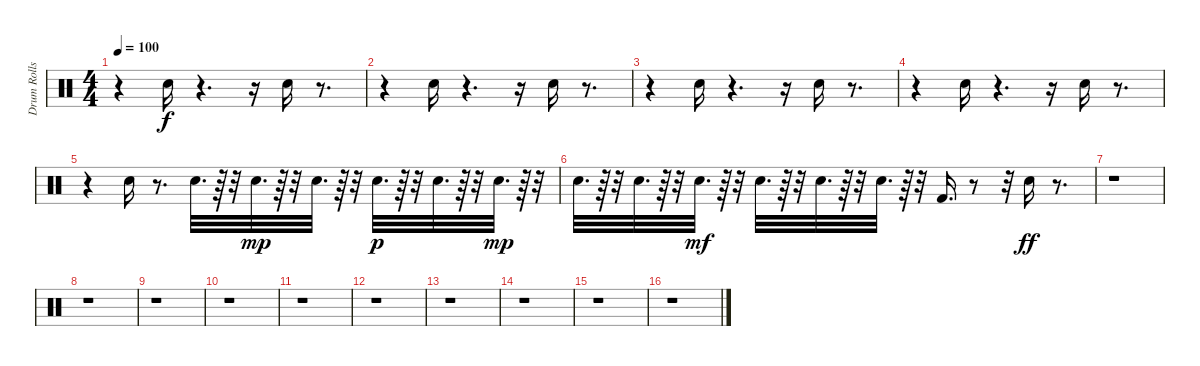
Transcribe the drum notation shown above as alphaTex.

\track ("Drum Rolls" "Drum Rolls") {instrument percussion}
\staff {score}
\articulation defaults
\ts (4 4)
\tempo 100
\clef neutral
\ks c
r.4{dy f} "Snare (hit)".16 r.4{d} r.16 "Snare (hit)".16 r.8{d} |
r.4 "Snare (hit)".16 r.4{d} r.16 "Snare (hit)".16 r.8{d} |
r.4 "Snare (hit)".16 r.4{d} r.16 "Snare (hit)".16 r.8{d} |
r.4 "Snare (hit)".16 r.4{d} r.16 "Snare (hit)".16 r.8{d} |
r.4 "Snare (hit)".16 r.8{d} "Electric Snare (hit)".32{d} r.64 r.32 "Electric Snare (hit)".32{d dy mp} r.64 r.32 "Electric Snare (hit)".32{d} r.64 r.32 "Electric Snare (hit)".32{d dy p} r.64 r.32 "Electric Snare (hit)".32{d} r.64 r.32 "Electric Snare (hit)".32{d dy mp} r.64 r.32 |
"Electric Snare (hit)".32{d} r.64 r.32 "Electric Snare (hit)".32{d} r.64 r.32 "Electric Snare (hit)".32{d dy mf} r.64 r.32 "Electric Snare (hit)".32{d} r.64 r.32 "Electric Snare (hit)".32{d} r.64 r.32 "Electric Snare (hit)".32{d} r.64 r.32 "Kick (hit) 2".16{d} r.8 r.32 "Electric Snare (hit)".16{dy ff} r.8{d} |
r.1 |
r.1 |
r.1 |
r.1 |
r.1 |
r.1 |
r.1 |
r.1 |
r.1 |
r.1
